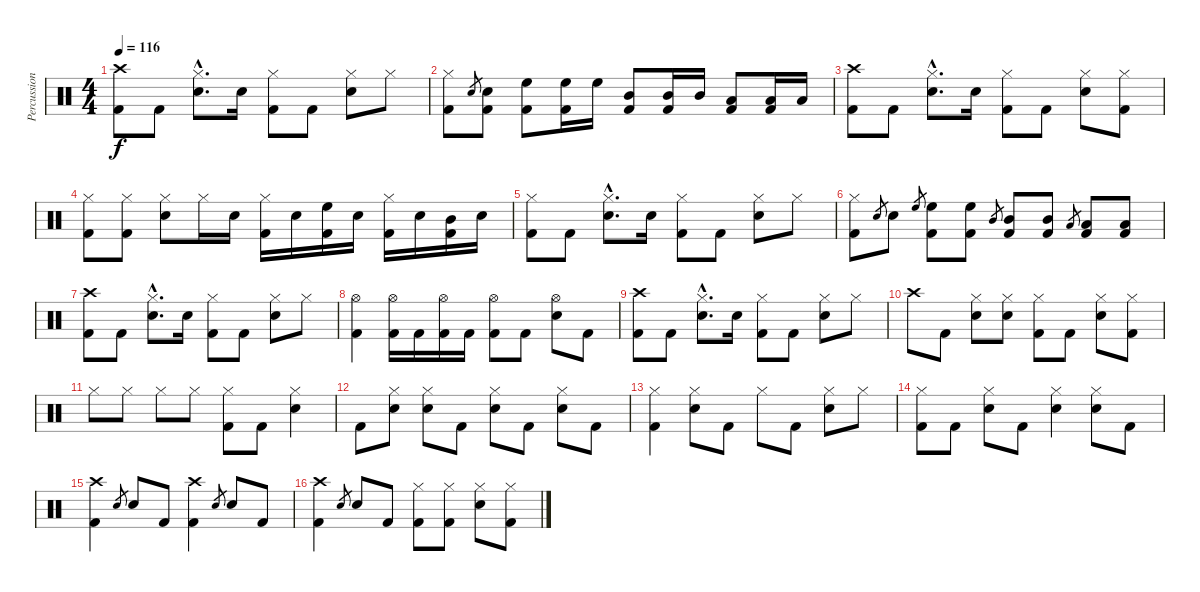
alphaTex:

\track ("Percussion" "Percussion") {instrument percussion}
\staff {score}
\articulation defaults
\ts (4 4)
\tempo 116
\clef neutral
\ks c
("Kick (hit) 2" "Crash high (hit)").8{dy f} "Kick (hit) 2".8 ("Snare (hit) 2"{hac} "Hi-Hat (closed)"{hac}).8{d} "Snare (hit) 2".16 ("Kick (hit) 2" "Hi-Hat (closed)").8 "Kick (hit) 2".8 ("Snare (hit) 2" "Hi-Hat (closed)").8 "Hi-Hat (closed)".8 |
("Kick (hit) 2" "Hi-Hat (closed)").8 "Snare (hit) 2".8{gr} ("Kick (hit) 2" "Snare (hit) 2").8 ("Kick (hit) 2" "High Floor Tom (hit)").8 ("Kick (hit) 2" "High Floor Tom (hit)").16 "High Floor Tom (hit)".16 ("Kick (hit) 2" "Mid Tom (hit)").8 ("Kick (hit) 2" "Mid Tom (hit)").16 "Mid Tom (hit)".16 ("Kick (hit) 2" "Low Tom (hit)").8 ("Kick (hit) 2" "Low Tom (hit)").16 "Low Tom (hit)".16 |
("Kick (hit) 2" "Crash high (hit)").8 "Kick (hit) 2".8 ("Snare (hit) 2"{hac} "Hi-Hat (closed)"{hac}).8{d} "Snare (hit) 2".16 ("Kick (hit) 2" "Hi-Hat (closed)").8 "Kick (hit) 2".8 ("Snare (hit) 2" "Hi-Hat (closed)").8 ("Kick (hit) 2" "Hi-Hat (closed)").8 |
("Kick (hit) 2" "Hi-Hat (closed)").8 ("Kick (hit) 2" "Hi-Hat (closed)").8 ("Snare (hit) 2" "Hi-Hat (closed)").8 "Hi-Hat (closed)".16 "Snare (hit) 2".16 ("Kick (hit) 2" "Hi-Hat (closed)").16 "Snare (hit) 2".16 ("Kick (hit) 2" "High Floor Tom (hit)").16 "Snare (hit) 2".16 ("Kick (hit) 2" "Hi-Hat (closed)").16 "Snare (hit) 2".16 ("Kick (hit) 2" "Mid Tom (hit)").16 "Snare (hit) 2".16 |
("Kick (hit) 2" "Hi-Hat (closed)").8 "Kick (hit) 2".8 ("Snare (hit) 2"{hac} "Hi-Hat (closed)"{hac}).8{d} "Snare (hit) 2".16 ("Kick (hit) 2" "Hi-Hat (closed)").8 "Kick (hit) 2".8 ("Snare (hit) 2" "Hi-Hat (closed)").8 "Hi-Hat (closed)".8 |
("Kick (hit) 2" "Hi-Hat (closed)").8 "Snare (hit) 2".8{gr} "Snare (hit) 2".8 "High Floor Tom (hit)".8{gr} ("Kick (hit) 2" "High Floor Tom (hit)").8 ("Kick (hit) 2" "High Floor Tom (hit)").8 "Mid Tom (hit)".8{gr} ("Kick (hit) 2" "Mid Tom (hit)").8 ("Kick (hit) 2" "Mid Tom (hit)").8 "Low Tom (hit)".8{gr} ("Kick (hit) 2" "Low Tom (hit)").8 ("Kick (hit) 2" "Low Tom (hit)").8 |
("Kick (hit) 2" "Crash high (hit)").8 "Kick (hit) 2".8 ("Snare (hit) 2"{hac} "Hi-Hat (closed)"{hac}).8{d} "Snare (hit) 2".16 ("Kick (hit) 2" "Hi-Hat (closed)").8 "Kick (hit) 2".8 ("Snare (hit) 2" "Hi-Hat (closed)").8 "Hi-Hat (closed)".8 |
("Kick (hit) 2" "Hi-Hat (open)").4 ("Kick (hit) 2" "Hi-Hat (open)").16 "Kick (hit) 2".16 ("Kick (hit) 2" "Hi-Hat (open)").16 "Kick (hit) 2".16 ("Kick (hit) 2" "Hi-Hat (open)").8 "Kick (hit) 2".8 ("Snare (hit) 2" "Hi-Hat (open)").8 "Kick (hit) 2".8 |
("Kick (hit) 2" "Crash high (hit)").8 "Kick (hit) 2".8 ("Snare (hit) 2"{hac} "Hi-Hat (closed)"{hac}).8{d} "Snare (hit) 2".16 ("Kick (hit) 2" "Hi-Hat (closed)").8 "Kick (hit) 2".8 ("Snare (hit) 2" "Hi-Hat (closed)").8 "Hi-Hat (closed)".8 |
"Crash high (hit)".8 "Kick (hit) 2".8 ("Snare (hit) 2" "Hi-Hat (closed)").8 ("Snare (hit) 2" "Hi-Hat (closed)").8 ("Kick (hit) 2" "Hi-Hat (closed)").8 "Kick (hit) 2".8 ("Snare (hit) 2" "Hi-Hat (closed)").8 ("Kick (hit) 2" "Hi-Hat (closed)").8 |
"Hi-Hat (closed)".8 "Hi-Hat (closed)".8 "Hi-Hat (closed)".8 "Hi-Hat (closed)".8 ("Kick (hit) 2" "Hi-Hat (closed)").8 "Kick (hit) 2".8 ("Snare (hit) 2" "Hi-Hat (closed)").4 |
"Kick (hit) 2".8 ("Snare (hit) 2" "Hi-Hat (closed)").8 ("Snare (hit) 2" "Hi-Hat (closed)").8 "Kick (hit) 2".8 ("Snare (hit) 2" "Hi-Hat (closed)").8 "Kick (hit) 2".8 ("Snare (hit) 2" "Hi-Hat (closed)").8 "Kick (hit) 2".8 |
("Kick (hit) 2" "Hi-Hat (closed)").4 ("Snare (hit) 2" "Hi-Hat (closed)").8 "Kick (hit) 2".8 "Hi-Hat (closed)".8 "Kick (hit) 2".8 ("Snare (hit) 2" "Hi-Hat (closed)").8 "Hi-Hat (closed)".8 |
("Kick (hit) 2" "Hi-Hat (closed)").8 "Kick (hit) 2".8 ("Snare (hit) 2" "Hi-Hat (closed)").8 "Kick (hit) 2".8 ("Snare (hit) 2" "Hi-Hat (closed)").4 ("Snare (hit) 2" "Hi-Hat (closed)").8 "Kick (hit) 2".8 |
("Kick (hit) 2" "Crash high (hit)").4 "Snare (hit) 2".8{gr} "Snare (hit) 2".8 "Kick (hit) 2".8 ("Kick (hit) 2" "Crash high (hit)").4 "Snare (hit) 2".8{gr} "Snare (hit) 2".8 "Kick (hit) 2".8 |
("Kick (hit) 2" "Crash high (hit)").4 "Snare (hit) 2".8{gr} "Snare (hit) 2".8 "Kick (hit) 2".8 ("Kick (hit) 2" "Hi-Hat (closed)").8 ("Kick (hit) 2" "Hi-Hat (closed)").8 ("Snare (hit) 2" "Hi-Hat (closed)").8 ("Kick (hit) 2" "Hi-Hat (closed)").8
